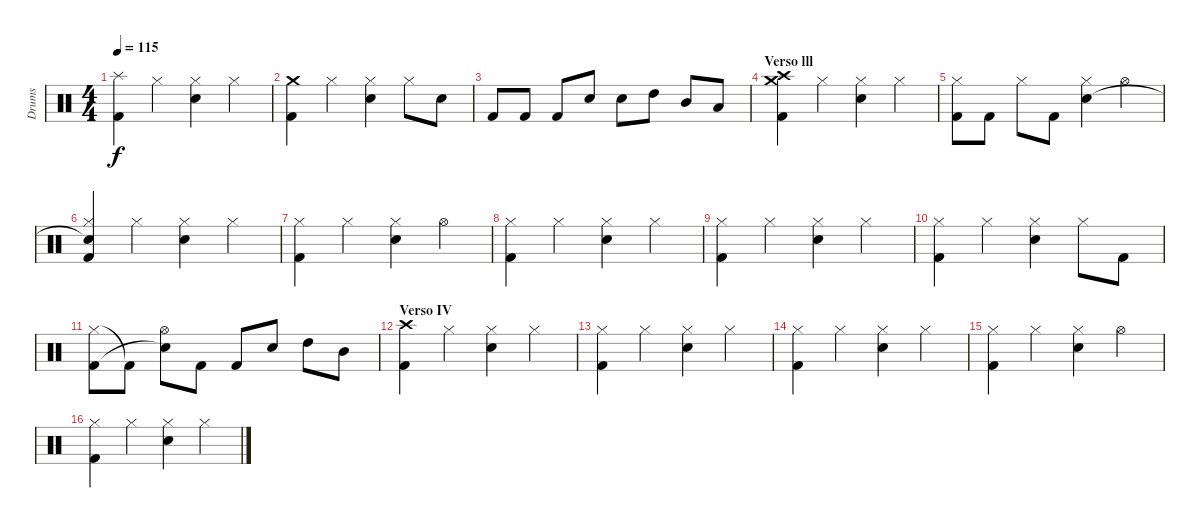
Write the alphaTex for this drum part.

\track ("Drums" "Drums") {instrument percussion}
\staff {score}
\articulation defaults
\ts (4 4)
\tempo 115
\clef neutral
\ks c
("Splash (hit)" "Kick (hit) 2").4{dy f} "Hi-Hat (closed)".4 ("Hi-Hat (closed)" "Snare (hit) 2").4 "Hi-Hat (closed)".4 |
("Crash medium (hit)" "Kick (hit) 2").4 "Hi-Hat (closed)".4 ("Hi-Hat (closed)" "Snare (hit) 2").4 "Hi-Hat (closed)".8 "Snare (hit) 2".8 |
"Kick (hit) 2".8 "Kick (hit) 2".8 "Kick (hit) 2".8 "Snare (hit) 2".8 "Snare (hit) 2".8 "High Tom (hit)".8 "Mid Tom (hit)".8 "Low Tom (hit)".8 |
\section ("" "Verso lll")
("Crash high (hit)" "Crash medium (hit)" "Kick (hit) 2").4 "Hi-Hat (closed)".4 ("Hi-Hat (closed)" "Snare (hit) 2").4 "Hi-Hat (closed)".4 |
("Hi-Hat (closed)" "Kick (hit) 2").8 "Kick (hit) 2".8 "Hi-Hat (closed)".8 "Kick (hit) 2".8 ("Hi-Hat (closed)" "Snare (hit) 2").4 "Hi-Hat (open)".4 |
("Hi-Hat (closed)" "Snare (hit)"{t} "Kick (hit) 2").4 "Hi-Hat (closed)".4 ("Hi-Hat (closed)" "Snare (hit) 2").4 "Hi-Hat (closed)".4 |
("Hi-Hat (closed)" "Kick (hit) 2").4 "Hi-Hat (closed)".4 ("Hi-Hat (closed)" "Snare (hit) 2").4 "Hi-Hat (open)".4 |
("Hi-Hat (closed)" "Kick (hit) 2").4 "Hi-Hat (closed)".4 ("Hi-Hat (closed)" "Snare (hit) 2").4 "Hi-Hat (closed)".4 |
("Hi-Hat (closed)" "Kick (hit) 2").4 "Hi-Hat (closed)".4 ("Hi-Hat (closed)" "Snare (hit) 2").4 "Hi-Hat (closed)".4 |
("Hi-Hat (closed)" "Kick (hit) 2").4 "Hi-Hat (closed)".4 ("Hi-Hat (closed)" "Snare (hit) 2").4 "Hi-Hat (closed)".8 "Kick (hit) 2".8 |
("Hi-Hat (closed)" "Kick (hit) 2").8 "Kick (hit) 2"{t}.8 ("Hi-Hat (open)" "Snare (hit) 2"{t}).8 "Kick (hit) 2".8 "Kick (hit) 2".8 "Snare (hit) 2".8 "High Tom (hit)".8 "Mid Tom (hit)".8 |
\section ("" "Verso IV")
("Crash high (hit)" "Kick (hit) 2").4 "Hi-Hat (closed)".4 ("Hi-Hat (closed)" "Snare (hit) 2").4 "Hi-Hat (closed)".4 |
("Hi-Hat (closed)" "Kick (hit) 2").4 "Hi-Hat (closed)".4 ("Hi-Hat (closed)" "Snare (hit) 2").4 "Hi-Hat (closed)".4 |
("Hi-Hat (closed)" "Kick (hit) 2").4 "Hi-Hat (closed)".4 ("Hi-Hat (closed)" "Snare (hit) 2").4 "Hi-Hat (closed)".4 |
("Hi-Hat (closed)" "Kick (hit) 2").4 "Hi-Hat (closed)".4 ("Hi-Hat (closed)" "Snare (hit) 2").4 "Hi-Hat (open)".4 |
("Hi-Hat (closed)" "Kick (hit) 2").4 "Hi-Hat (closed)".4 ("Hi-Hat (closed)" "Snare (hit) 2").4 "Hi-Hat (closed)".4
